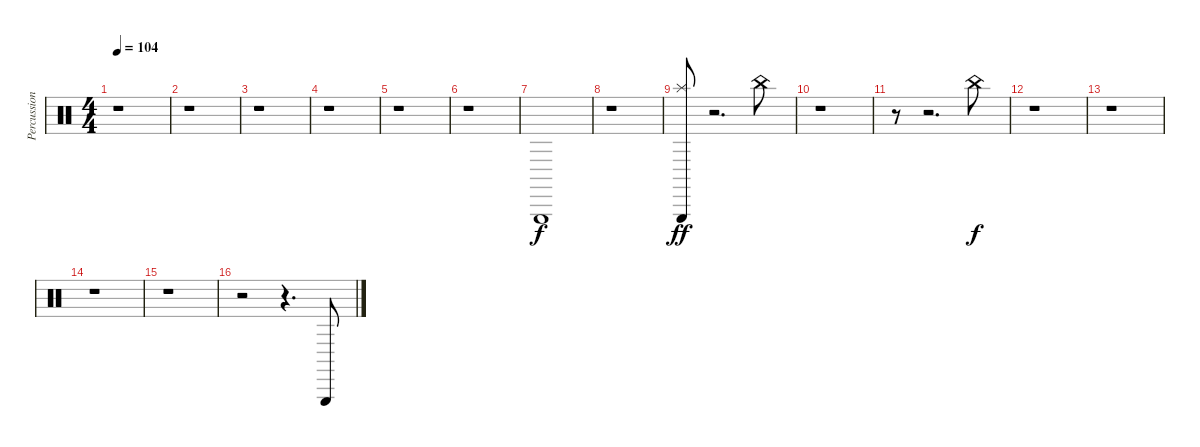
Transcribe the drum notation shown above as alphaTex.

\track ("Percussion" "Percussion") {instrument percussion}
\staff {score}
\articulation defaults
\ts (4 4)
\tempo 104
\clef neutral
\ks c
r.1{dy ff} |
r.1 |
r.1 |
r.1 |
r.1 |
r.1 |
"Triangle (hit)".1{dy f} |
r.1 |
("Triangle (hit)" "Splash (hit)").8{dy ff} r.2{d} "China (hit)".8 |
r.1 |
r.8 r.2{d} "China (hit)".8{dy f} |
r.1 |
r.1 |
r.1 |
r.1 |
r.2 r.4{d} "Triangle (hit)".8
